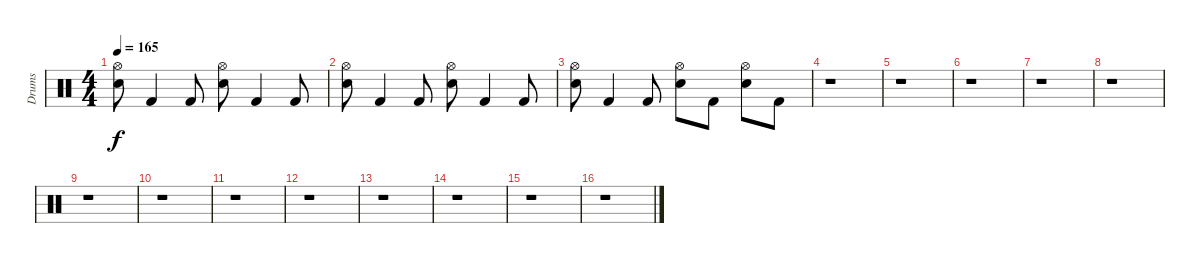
\track ("Drums" "Drums") {instrument percussion}
\staff {score}
\articulation defaults
\ts (4 4)
\tempo 165
\clef neutral
\ks c
("Electric Snare (hit)" "Hi-Hat (open)").8{dy f} "Kick (hit) 2".4 "Kick (hit) 2".8 ("Electric Snare (hit)" "Hi-Hat (open)").8 "Kick (hit) 2".4 "Kick (hit) 2".8 |
("Electric Snare (hit)" "Hi-Hat (open)").8{volume 0} "Kick (hit) 2".4 "Kick (hit) 2".8 ("Electric Snare (hit)" "Hi-Hat (open)").8 "Kick (hit) 2".4 "Kick (hit) 2".8 |
("Electric Snare (hit)" "Hi-Hat (open)").8 "Kick (hit) 2".4 "Kick (hit) 2".8 ("Electric Snare (hit)" "Hi-Hat (open)").8 "Kick (hit) 2".8 ("Electric Snare (hit)" "Hi-Hat (open)").8 "Kick (hit) 2".8 |
r.1 |
r.1 |
r.1 |
r.1 |
r.1 |
r.1 |
r.1 |
r.1 |
r.1 |
r.1 |
r.1 |
r.1 |
r.1
